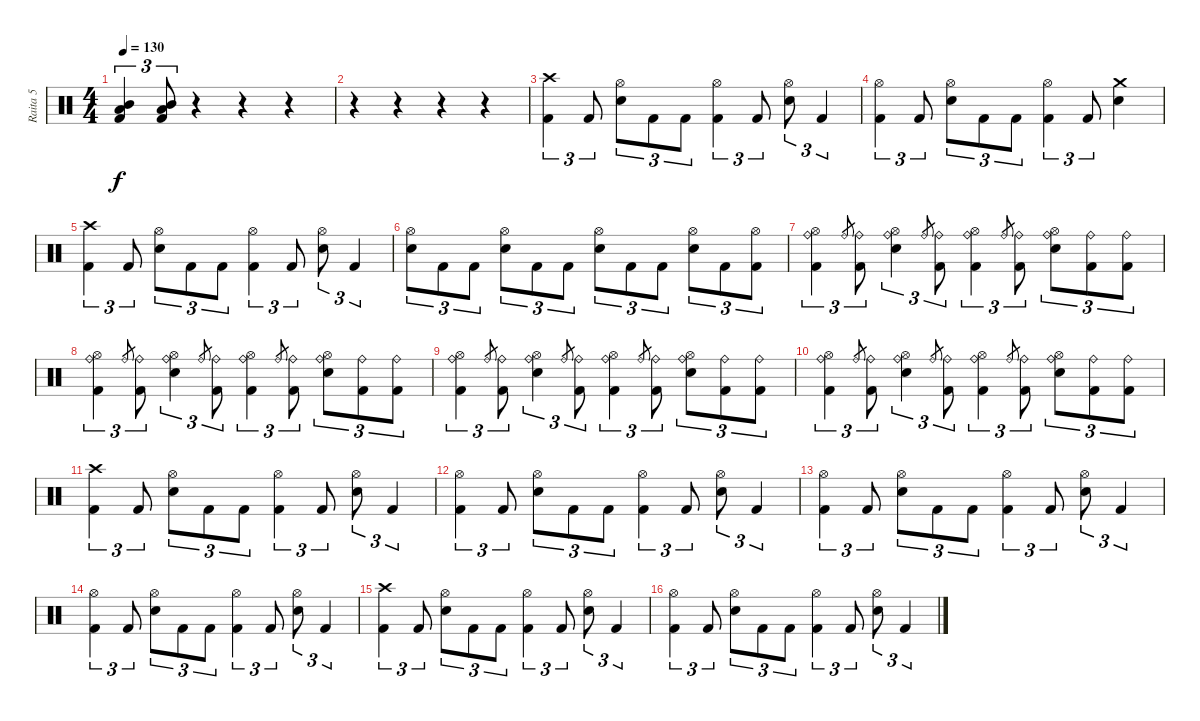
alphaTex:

\track ("Raita 5" "Raita 5") {instrument percussion}
\staff {score}
\articulation defaults
\ts (4 4)
\tempo 130
\clef neutral
\ks c
("Mid Tom (hit)" "Low Tom (hit)" "Kick (hit) 2").4{tu (3 2) dy f} ("Mid Tom (hit)" "Low Tom (hit)" "Kick (hit) 2").8{tu (3 2)} r.4 r.4 r.4 |
r.4 r.4 r.4 r.4 |
("Crash high (hit)" "Kick (hit) 2").4{tu (3 2)} "Kick (hit) 2".8{tu (3 2)} ("Hi-Hat (open)" "Snare (hit) 2").8{tu (3 2)} "Kick (hit) 2".8{tu (3 2)} "Kick (hit) 2".8{tu (3 2)} ("Hi-Hat (open)" "Kick (hit) 2").4{tu (3 2)} "Kick (hit) 2".8{tu (3 2)} ("Hi-Hat (open)" "Snare (hit) 2").8{tu (3 2)} "Kick (hit) 2".4{tu (3 2)} |
("Hi-Hat (open)" "Kick (hit) 2").4{tu (3 2)} "Kick (hit) 2".8{tu (3 2)} ("Hi-Hat (open)" "Snare (hit) 2").8{tu (3 2)} "Kick (hit) 2".8{tu (3 2)} "Kick (hit) 2".8{tu (3 2)} ("Hi-Hat (open)" "Kick (hit) 2").4{tu (3 2)} "Kick (hit) 2".8{tu (3 2)} ("Crash medium (hit)" "Snare (hit) 2").4 |
("Crash high (hit)" "Kick (hit) 2").4{tu (3 2)} "Kick (hit) 2".8{tu (3 2)} ("Hi-Hat (open)" "Snare (hit) 2").8{tu (3 2)} "Kick (hit) 2".8{tu (3 2)} "Kick (hit) 2".8{tu (3 2)} ("Hi-Hat (open)" "Kick (hit) 2").4{tu (3 2)} "Kick (hit) 2".8{tu (3 2)} ("Hi-Hat (open)" "Snare (hit) 2").8{tu (3 2)} "Kick (hit) 2".4{tu (3 2)} |
("Hi-Hat (open)" "Snare (hit) 2").8{tu (3 2)} "Kick (hit) 2".8{tu (3 2)} "Kick (hit) 2".8{tu (3 2)} ("Hi-Hat (open)" "Snare (hit) 2").8{tu (3 2)} "Kick (hit) 2".8{tu (3 2)} "Kick (hit) 2".8{tu (3 2)} ("Hi-Hat (open)" "Snare (hit) 2").8{tu (3 2)} "Kick (hit) 2".8{tu (3 2)} "Kick (hit) 2".8{tu (3 2)} ("Hi-Hat (open)" "Snare (hit) 2").8{tu (3 2)} "Kick (hit) 2".8{tu (3 2)} ("Hi-Hat (open)" "Kick (hit) 2").8{tu (3 2)} |
("Ride (bell)" "Hi-Hat (open)" "Kick (hit) 2").4{tu (3 2)} "Ride (bell)".8{gr} ("Ride (bell)" "Kick (hit) 2").8{tu (3 2)} ("Ride (bell)" "Hi-Hat (open)" "Snare (hit) 2").4{tu (3 2)} "Ride (bell)".8{gr} ("Ride (bell)" "Kick (hit) 2").8{tu (3 2)} ("Ride (bell)" "Hi-Hat (open)" "Kick (hit) 2").4{tu (3 2)} "Ride (bell)".8{gr} ("Ride (bell)" "Kick (hit) 2").8{tu (3 2)} ("Ride (bell)" "Hi-Hat (open)" "Snare (hit) 2").8{tu (3 2)} ("Ride (bell)" "Kick (hit) 2").8{tu (3 2)} ("Ride (bell)" "Kick (hit) 2").8{tu (3 2)} |
("Ride (bell)" "Hi-Hat (open)" "Kick (hit) 2").4{tu (3 2)} "Ride (bell)".8{gr} ("Ride (bell)" "Kick (hit) 2").8{tu (3 2)} ("Ride (bell)" "Hi-Hat (open)" "Snare (hit) 2").4{tu (3 2)} "Ride (bell)".8{gr} ("Ride (bell)" "Kick (hit) 2").8{tu (3 2)} ("Ride (bell)" "Hi-Hat (open)" "Kick (hit) 2").4{tu (3 2)} "Ride (bell)".8{gr} ("Ride (bell)" "Kick (hit) 2").8{tu (3 2)} ("Ride (bell)" "Hi-Hat (open)" "Snare (hit) 2").8{tu (3 2)} ("Ride (bell)" "Kick (hit) 2").8{tu (3 2)} ("Ride (bell)" "Kick (hit) 2").8{tu (3 2)} |
("Ride (bell)" "Hi-Hat (open)" "Kick (hit) 2").4{tu (3 2)} "Ride (bell)".8{gr} ("Ride (bell)" "Kick (hit) 2").8{tu (3 2)} ("Ride (bell)" "Hi-Hat (open)" "Snare (hit) 2").4{tu (3 2)} "Ride (bell)".8{gr} ("Ride (bell)" "Kick (hit) 2").8{tu (3 2)} ("Ride (bell)" "Hi-Hat (open)" "Kick (hit) 2").4{tu (3 2)} "Ride (bell)".8{gr} ("Ride (bell)" "Kick (hit) 2").8{tu (3 2)} ("Ride (bell)" "Hi-Hat (open)" "Snare (hit) 2").8{tu (3 2)} ("Ride (bell)" "Kick (hit) 2").8{tu (3 2)} ("Ride (bell)" "Kick (hit) 2").8{tu (3 2)} |
("Ride (bell)" "Hi-Hat (open)" "Kick (hit) 2").4{tu (3 2)} "Ride (bell)".8{gr} ("Ride (bell)" "Kick (hit) 2").8{tu (3 2)} ("Ride (bell)" "Hi-Hat (open)" "Snare (hit) 2").4{tu (3 2)} "Ride (bell)".8{gr} ("Ride (bell)" "Kick (hit) 2").8{tu (3 2)} ("Ride (bell)" "Hi-Hat (open)" "Kick (hit) 2").4{tu (3 2)} "Ride (bell)".8{gr} ("Ride (bell)" "Kick (hit) 2").8{tu (3 2)} ("Ride (bell)" "Hi-Hat (open)" "Snare (hit) 2").8{tu (3 2)} ("Ride (bell)" "Kick (hit) 2").8{tu (3 2)} ("Ride (bell)" "Kick (hit) 2").8{tu (3 2)} |
("Crash high (hit)" "Kick (hit) 2").4{tu (3 2)} "Kick (hit) 2".8{tu (3 2)} ("Hi-Hat (open)" "Snare (hit) 2").8{tu (3 2)} "Kick (hit) 2".8{tu (3 2)} "Kick (hit) 2".8{tu (3 2)} ("Hi-Hat (open)" "Kick (hit) 2").4{tu (3 2)} "Kick (hit) 2".8{tu (3 2)} ("Hi-Hat (open)" "Snare (hit) 2").8{tu (3 2)} "Kick (hit) 2".4{tu (3 2)} |
("Hi-Hat (open)" "Kick (hit) 2").4{tu (3 2)} "Kick (hit) 2".8{tu (3 2)} ("Hi-Hat (open)" "Snare (hit) 2").8{tu (3 2)} "Kick (hit) 2".8{tu (3 2)} "Kick (hit) 2".8{tu (3 2)} ("Hi-Hat (open)" "Kick (hit) 2").4{tu (3 2)} "Kick (hit) 2".8{tu (3 2)} ("Hi-Hat (open)" "Snare (hit) 2").8{tu (3 2)} "Kick (hit) 2".4{tu (3 2)} |
("Hi-Hat (open)" "Kick (hit) 2").4{tu (3 2)} "Kick (hit) 2".8{tu (3 2)} ("Hi-Hat (open)" "Snare (hit) 2").8{tu (3 2)} "Kick (hit) 2".8{tu (3 2)} "Kick (hit) 2".8{tu (3 2)} ("Hi-Hat (open)" "Kick (hit) 2").4{tu (3 2)} "Kick (hit) 2".8{tu (3 2)} ("Hi-Hat (open)" "Snare (hit) 2").8{tu (3 2)} "Kick (hit) 2".4{tu (3 2)} |
("Hi-Hat (open)" "Kick (hit) 2").4{tu (3 2)} "Kick (hit) 2".8{tu (3 2)} ("Hi-Hat (open)" "Snare (hit) 2").8{tu (3 2)} "Kick (hit) 2".8{tu (3 2)} "Kick (hit) 2".8{tu (3 2)} ("Hi-Hat (open)" "Kick (hit) 2").4{tu (3 2)} "Kick (hit) 2".8{tu (3 2)} ("Hi-Hat (open)" "Snare (hit) 2").8{tu (3 2)} "Kick (hit) 2".4{tu (3 2)} |
("Crash high (hit)" "Kick (hit) 2").4{tu (3 2)} "Kick (hit) 2".8{tu (3 2)} ("Hi-Hat (open)" "Snare (hit) 2").8{tu (3 2)} "Kick (hit) 2".8{tu (3 2)} "Kick (hit) 2".8{tu (3 2)} ("Hi-Hat (open)" "Kick (hit) 2").4{tu (3 2)} "Kick (hit) 2".8{tu (3 2)} ("Hi-Hat (open)" "Snare (hit) 2").8{tu (3 2)} "Kick (hit) 2".4{tu (3 2)} |
("Hi-Hat (open)" "Kick (hit) 2").4{tu (3 2)} "Kick (hit) 2".8{tu (3 2)} ("Hi-Hat (open)" "Snare (hit) 2").8{tu (3 2)} "Kick (hit) 2".8{tu (3 2)} "Kick (hit) 2".8{tu (3 2)} ("Hi-Hat (open)" "Kick (hit) 2").4{tu (3 2)} "Kick (hit) 2".8{tu (3 2)} ("Hi-Hat (open)" "Snare (hit) 2").8{tu (3 2)} "Kick (hit) 2".4{tu (3 2)}
